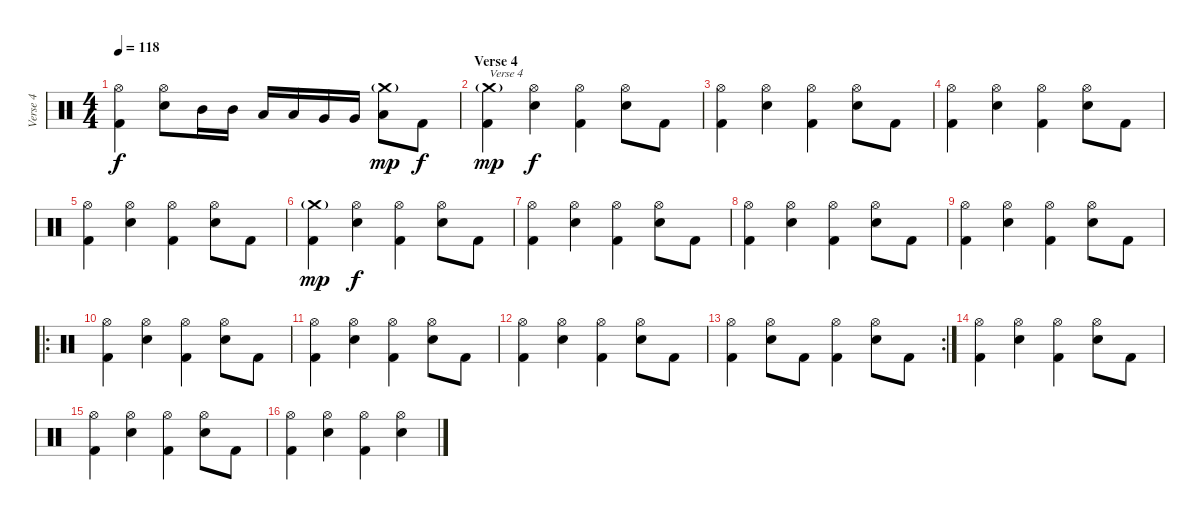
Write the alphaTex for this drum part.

\track ("Verse 4" "Verse 4") {instrument percussion}
\staff {score}
\articulation defaults
\ts (4 4)
\tempo 118
\clef neutral
\ks c
("Hi-Hat (open)" "Kick (hit) 2").4{dy f} ("Hi-Hat (open)" "Electric Snare (hit)").8 "Mid Tom (hit)".16 "Mid Tom (hit)".16 "Low Tom (hit)".16 "Low Tom (hit)".16 "Very Low Tom (hit)".16 "Very Low Tom (hit)".16 ("Crash medium (hit)"{g} "Low Floor Tom (hit)").8{dy mp} "Kick (hit) 2".8{dy f} |
\section ("" "Verse 4")
("Crash medium (hit)"{g} "Kick (hit) 2").4{txt "Verse 4" dy mp} ("Hi-Hat (open)" "Electric Snare (hit)").4{dy f} ("Hi-Hat (open)" "Kick (hit) 2").4 ("Hi-Hat (open)" "Electric Snare (hit)").8 "Kick (hit) 2".8 |
("Hi-Hat (open)" "Kick (hit) 2").4 ("Hi-Hat (open)" "Electric Snare (hit)").4 ("Hi-Hat (open)" "Kick (hit) 2").4 ("Hi-Hat (open)" "Electric Snare (hit)").8 "Kick (hit) 2".8 |
("Hi-Hat (open)" "Kick (hit) 2").4 ("Hi-Hat (open)" "Electric Snare (hit)").4 ("Hi-Hat (open)" "Kick (hit) 2").4 ("Hi-Hat (open)" "Electric Snare (hit)").8 "Kick (hit) 2".8 |
("Hi-Hat (open)" "Kick (hit) 2").4 ("Hi-Hat (open)" "Electric Snare (hit)").4 ("Hi-Hat (open)" "Kick (hit) 2").4 ("Hi-Hat (open)" "Electric Snare (hit)").8 "Kick (hit) 2".8 |
("Crash medium (hit)"{g} "Kick (hit) 2").4{dy mp} ("Hi-Hat (open)" "Electric Snare (hit)").4{dy f} ("Hi-Hat (open)" "Kick (hit) 2").4 ("Hi-Hat (open)" "Electric Snare (hit)").8 "Kick (hit) 2".8 |
("Hi-Hat (open)" "Kick (hit) 2").4 ("Hi-Hat (open)" "Electric Snare (hit)").4 ("Hi-Hat (open)" "Kick (hit) 2").4 ("Hi-Hat (open)" "Electric Snare (hit)").8 "Kick (hit) 2".8 |
("Hi-Hat (open)" "Kick (hit) 2").4 ("Hi-Hat (open)" "Electric Snare (hit)").4 ("Hi-Hat (open)" "Kick (hit) 2").4 ("Hi-Hat (open)" "Electric Snare (hit)").8 "Kick (hit) 2".8 |
("Hi-Hat (open)" "Kick (hit) 2").4 ("Hi-Hat (open)" "Electric Snare (hit)").4 ("Hi-Hat (open)" "Kick (hit) 2").4 ("Hi-Hat (open)" "Electric Snare (hit)").8 "Kick (hit) 2".8 |
\ro
("Hi-Hat (open)" "Kick (hit) 2").4 ("Hi-Hat (open)" "Electric Snare (hit)").4 ("Hi-Hat (open)" "Kick (hit) 2").4 ("Hi-Hat (open)" "Electric Snare (hit)").8 "Kick (hit) 2".8 |
("Hi-Hat (open)" "Kick (hit) 2").4 ("Hi-Hat (open)" "Electric Snare (hit)").4 ("Hi-Hat (open)" "Kick (hit) 2").4 ("Hi-Hat (open)" "Electric Snare (hit)").8 "Kick (hit) 2".8 |
("Hi-Hat (open)" "Kick (hit) 2").4 ("Hi-Hat (open)" "Electric Snare (hit)").4 ("Hi-Hat (open)" "Kick (hit) 2").4 ("Hi-Hat (open)" "Electric Snare (hit)").8 "Kick (hit) 2".8 |
\rc 2
("Hi-Hat (open)" "Kick (hit) 2").4 ("Hi-Hat (open)" "Electric Snare (hit)").8 "Kick (hit) 2".8 ("Hi-Hat (open)" "Kick (hit) 2").4 ("Hi-Hat (open)" "Electric Snare (hit)").8 "Kick (hit) 2".8 |
("Hi-Hat (open)" "Kick (hit) 2").4 ("Hi-Hat (open)" "Electric Snare (hit)").4 ("Hi-Hat (open)" "Kick (hit) 2").4 ("Hi-Hat (open)" "Electric Snare (hit)").8 "Kick (hit) 2".8 |
("Hi-Hat (open)" "Kick (hit) 2").4 ("Hi-Hat (open)" "Electric Snare (hit)").4 ("Hi-Hat (open)" "Kick (hit) 2").4 ("Hi-Hat (open)" "Electric Snare (hit)").8 "Kick (hit) 2".8 |
("Hi-Hat (open)" "Kick (hit) 2").4 ("Hi-Hat (open)" "Electric Snare (hit)").4 ("Hi-Hat (open)" "Kick (hit) 2").4 ("Hi-Hat (open)" "Electric Snare (hit)").4
